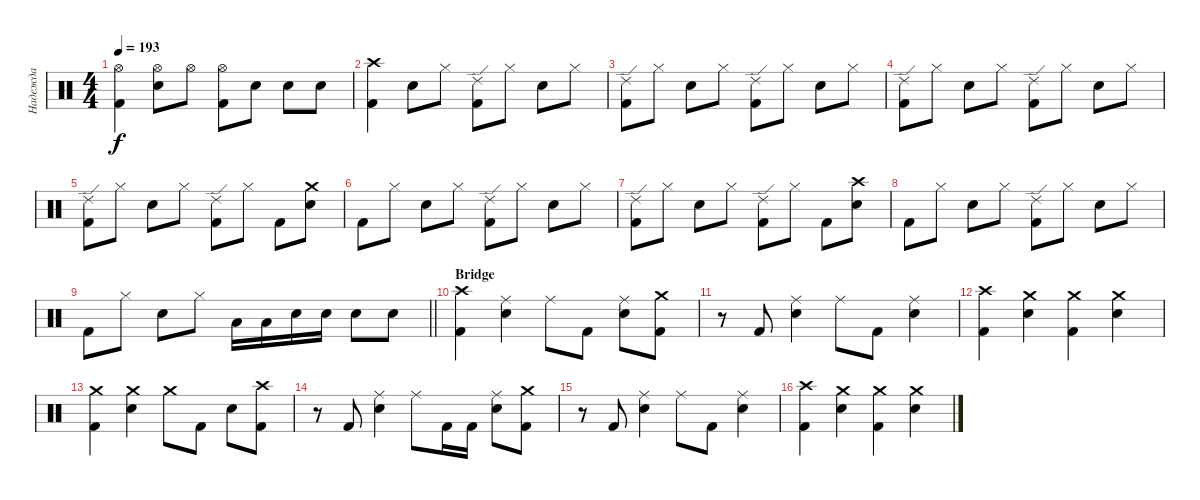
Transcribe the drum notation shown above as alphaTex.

\track ("Надежда" "Надежда") {instrument percussion}
\staff {score}
\articulation defaults
\ts (4 4)
\tempo 193
\clef neutral
\ks c
("Hi-Hat (open)" "Kick (hit) 2").4{dy f} ("Hi-Hat (open)" "Snare (hit) 2").8 "Hi-Hat (open)".8 ("Hi-Hat (open)" "Kick (hit) 2").8 "Snare (hit) 2".8 "Snare (hit) 2".8 "Snare (hit) 2".8 |
("Crash high (hit)" "Kick (hit) 2").4 "Snare (hit) 2".8 "Hi-Hat (closed)".8 ("Ride (edge) 2" "Kick (hit) 2").8 "Hi-Hat (closed)".8 "Snare (hit) 2".8 "Hi-Hat (closed)".8 |
("Ride (edge) 2" "Kick (hit) 2").8 "Hi-Hat (closed)".8 "Snare (hit) 2".8 "Hi-Hat (closed)".8 ("Ride (edge) 2" "Kick (hit) 2").8 "Hi-Hat (closed)".8 "Snare (hit) 2".8 "Hi-Hat (closed)".8 |
("Ride (edge) 2" "Kick (hit) 2").8 "Hi-Hat (closed)".8 "Snare (hit) 2".8 "Hi-Hat (closed)".8 ("Ride (edge) 2" "Kick (hit) 2").8 "Hi-Hat (closed)".8 "Snare (hit) 2".8 "Hi-Hat (closed)".8 |
("Ride (edge) 2" "Kick (hit) 2").8 "Hi-Hat (closed)".8 "Snare (hit) 2".8 "Hi-Hat (closed)".8 ("Ride (edge) 2" "Kick (hit) 2").8 "Hi-Hat (closed)".8 "Kick (hit) 2".8 ("Crash medium (hit)" "Snare (hit) 2").8 |
"Kick (hit) 2".8 "Hi-Hat (closed)".8 "Snare (hit) 2".8 "Hi-Hat (closed)".8 ("Ride (edge) 2" "Kick (hit) 2").8 "Hi-Hat (closed)".8 "Snare (hit) 2".8 "Hi-Hat (closed)".8 |
("Ride (edge) 2" "Kick (hit) 2").8 "Hi-Hat (closed)".8 "Snare (hit) 2".8 "Hi-Hat (closed)".8 ("Ride (edge) 2" "Kick (hit) 2").8 "Hi-Hat (closed)".8 "Kick (hit) 2".8 ("Crash high (hit)" "Snare (hit) 2").8 |
"Kick (hit) 2".8 "Hi-Hat (closed)".8 "Snare (hit) 2".8 "Hi-Hat (closed)".8 ("Ride (edge) 2" "Kick (hit) 2").8 "Hi-Hat (closed)".8 "Snare (hit) 2".8 "Hi-Hat (closed)".8 |
\barLineRight lightlight "Kick (hit) 2".8 "Hi-Hat (closed)".8 "Snare (hit) 2".8 "Hi-Hat (closed)".8 "Low Tom (hit)".16 "Low Tom (hit)".16 "Snare (hit) 2".16 "Snare (hit) 2".16 "Snare (hit) 2".8 "Snare (hit) 2".8
|
\section ("" "Bridge")
("Crash high (hit)" "Kick (hit) 2").4 ("Ride (middle)" "Snare (hit) 2").4 "Ride (middle)".8 "Kick (hit) 2".8 ("Ride (middle)" "Snare (hit) 2").8 ("Crash medium (hit)" "Kick (hit) 2").8 |
r.8 "Kick (hit) 2".8 ("Ride (middle)" "Snare (hit) 2").4 "Ride (middle)".8 "Kick (hit) 2".8 ("Ride (middle)" "Snare (hit) 2").4 |
("Crash high (hit)" "Kick (hit) 2").4 ("Crash medium (hit)" "Snare (hit) 2").4 ("Crash medium (hit)" "Kick (hit) 2").4 ("Crash medium (hit)" "Snare (hit) 2").4 |
("Crash medium (hit)" "Kick (hit) 2").4 ("Crash medium (hit)" "Snare (hit) 2").4 "Crash medium (hit)".8 "Kick (hit) 2".8 "Snare (hit) 2".8 ("Crash high (hit)" "Kick (hit) 2").8 |
r.8 "Kick (hit) 2".8 ("Ride (middle)" "Snare (hit) 2").4 "Ride (middle)".8 "Kick (hit) 2".16 "Kick (hit) 2".16 ("Ride (middle)" "Snare (hit) 2").8 ("Crash medium (hit)" "Kick (hit) 2").8 |
r.8 "Kick (hit) 2".8 ("Ride (middle)" "Snare (hit) 2").4 "Ride (middle)".8 "Kick (hit) 2".8 ("Ride (middle)" "Snare (hit) 2").4 |
("Crash high (hit)" "Kick (hit) 2").4 ("Crash medium (hit)" "Snare (hit) 2").4 ("Crash medium (hit)" "Kick (hit) 2").4 ("Crash medium (hit)" "Snare (hit) 2").4
